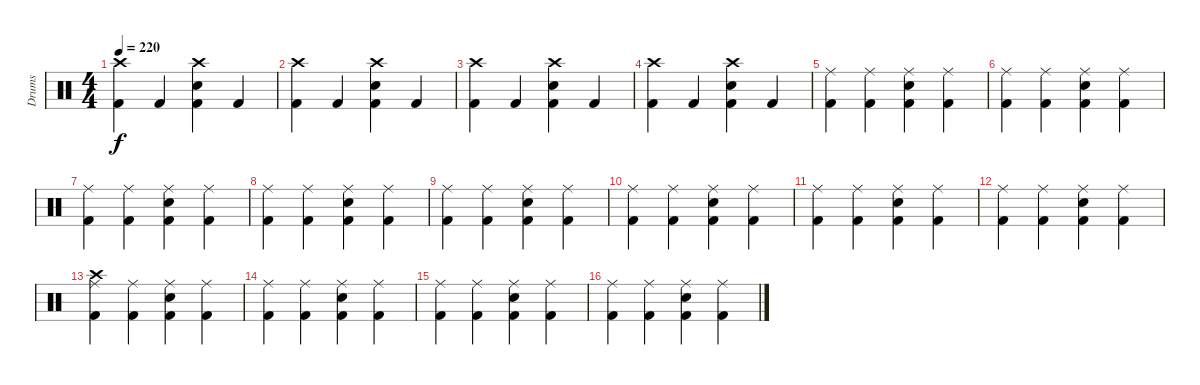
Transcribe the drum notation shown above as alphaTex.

\track ("Drums" "Drums") {instrument percussion}
\staff {score}
\articulation defaults
\ts (4 4)
\tempo 220
\clef neutral
\ks c
("Crash high (hit)" "Kick (hit) 2").4{dy f} "Kick (hit) 2".4 ("Crash high (hit)" "Snare (hit) 2" "Kick (hit) 2").4 "Kick (hit) 2".4 |
("Crash high (hit)" "Kick (hit) 2").4 "Kick (hit) 2".4 ("Crash high (hit)" "Snare (hit) 2" "Kick (hit) 2").4 "Kick (hit) 2".4 |
("Crash high (hit)" "Kick (hit) 2").4 "Kick (hit) 2".4 ("Crash high (hit)" "Snare (hit) 2" "Kick (hit) 2").4 "Kick (hit) 2".4 |
("Crash high (hit)" "Kick (hit) 2").4 "Kick (hit) 2".4 ("Crash high (hit)" "Snare (hit) 2" "Kick (hit) 2").4 "Kick (hit) 2".4 |
("Ride (middle)" "Kick (hit) 2").4 ("Ride (middle)" "Kick (hit) 2").4 ("Ride (middle)" "Snare (hit) 2" "Kick (hit) 2").4 ("Ride (middle)" "Kick (hit) 2").4 |
("Ride (middle)" "Kick (hit) 2").4 ("Ride (middle)" "Kick (hit) 2").4 ("Ride (middle)" "Snare (hit) 2" "Kick (hit) 2").4 ("Ride (middle)" "Kick (hit) 2").4 |
("Ride (middle)" "Kick (hit) 2").4 ("Ride (middle)" "Kick (hit) 2").4 ("Ride (middle)" "Snare (hit) 2" "Kick (hit) 2").4 ("Ride (middle)" "Kick (hit) 2").4 |
("Ride (middle)" "Kick (hit) 2").4 ("Ride (middle)" "Kick (hit) 2").4 ("Ride (middle)" "Snare (hit) 2" "Kick (hit) 2").4 ("Ride (middle)" "Kick (hit) 2").4 |
("Ride (middle)" "Kick (hit) 2").4 ("Ride (middle)" "Kick (hit) 2").4 ("Ride (middle)" "Snare (hit) 2" "Kick (hit) 2").4 ("Ride (middle)" "Kick (hit) 2").4 |
("Ride (middle)" "Kick (hit) 2").4 ("Ride (middle)" "Kick (hit) 2").4 ("Ride (middle)" "Snare (hit) 2" "Kick (hit) 2").4 ("Ride (middle)" "Kick (hit) 2").4 |
("Ride (middle)" "Kick (hit) 2").4 ("Ride (middle)" "Kick (hit) 2").4 ("Ride (middle)" "Snare (hit) 2" "Kick (hit) 2").4 ("Ride (middle)" "Kick (hit) 2").4 |
("Ride (middle)" "Kick (hit) 2").4 ("Ride (middle)" "Kick (hit) 2").4 ("Ride (middle)" "Snare (hit) 2" "Kick (hit) 2").4 ("Ride (middle)" "Kick (hit) 2").4 |
("Crash high (hit)" "Ride (middle)" "Kick (hit) 2").4 ("Ride (middle)" "Kick (hit) 2").4 ("Ride (middle)" "Snare (hit) 2" "Kick (hit) 2").4 ("Ride (middle)" "Kick (hit) 2").4 |
("Ride (middle)" "Kick (hit) 2").4 ("Ride (middle)" "Kick (hit) 2").4 ("Ride (middle)" "Snare (hit) 2" "Kick (hit) 2").4 ("Ride (middle)" "Kick (hit) 2").4 |
("Ride (middle)" "Kick (hit) 2").4 ("Ride (middle)" "Kick (hit) 2").4 ("Ride (middle)" "Snare (hit) 2" "Kick (hit) 2").4 ("Ride (middle)" "Kick (hit) 2").4 |
("Ride (middle)" "Kick (hit) 2").4 ("Ride (middle)" "Kick (hit) 2").4 ("Ride (middle)" "Snare (hit) 2" "Kick (hit) 2").4 ("Ride (middle)" "Kick (hit) 2").4
